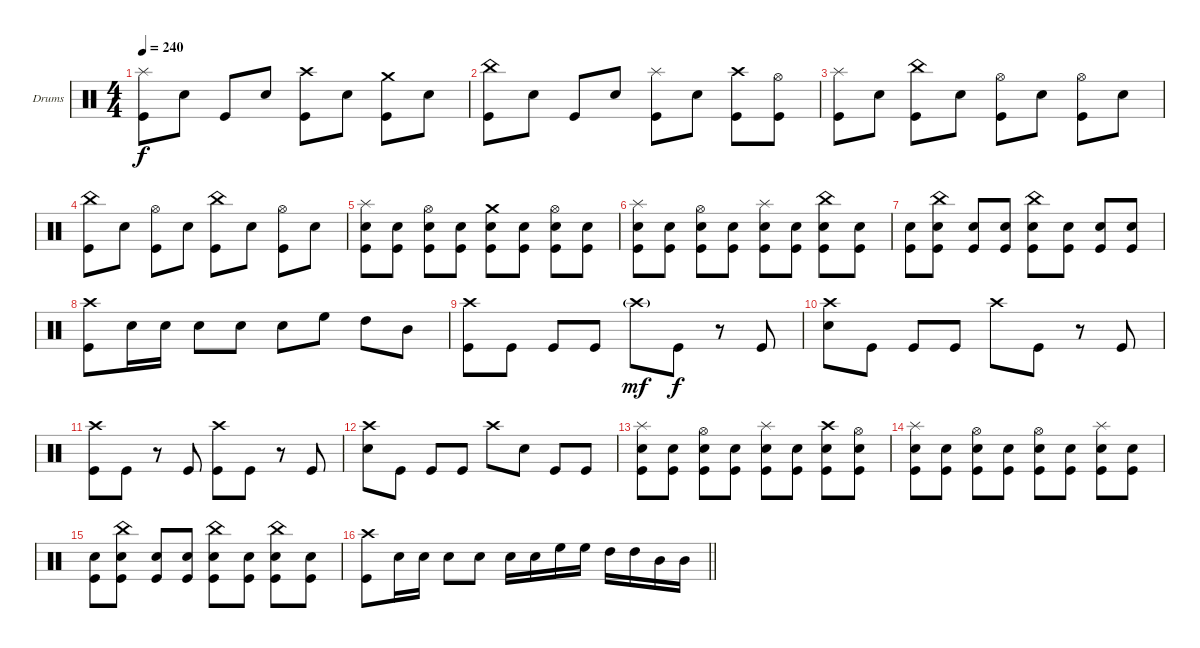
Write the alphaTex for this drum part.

\bracketExtendMode groupsimilarinstruments
\firstSystemTrackNameOrientation horizontal
\otherSystemsTrackNameOrientation horizontal
\track ("Drumkit" "Drums") {instrument percussion}
\staff {score}
\articulation defaults
\ts (4 4)
\tempo 240
\clef neutral
\ks c
("Splash (hit)" "Kick (hit)").8{dy f} "Snare (hit) 2".8 "Kick (hit)".8 "Snare (hit) 2".8 ("Crash high (hit)" "Kick (hit)").8 "Snare (hit) 2".8 ("Crash medium (hit)" "Kick (hit)").8 "Snare (hit) 2".8 |
("China (hit)" "Kick (hit)").8 "Snare (hit) 2".8 "Kick (hit)".8 "Snare (hit) 2".8 ("Splash (hit)" "Kick (hit)").8 "Snare (hit) 2".8 ("Crash high (hit)" "Kick (hit)").8 ("Hi-Hat (open)" "Kick (hit)").8 |
("Splash (hit)" "Kick (hit)").8 "Snare (hit) 2".8 ("China (hit)" "Kick (hit)").8 "Snare (hit) 2".8 ("Hi-Hat (open)" "Kick (hit)").8 "Snare (hit) 2".8 ("Hi-Hat (open)" "Kick (hit)").8 "Snare (hit) 2".8 |
("China (hit)" "Kick (hit)").8 "Snare (hit) 2".8 ("Hi-Hat (open)" "Kick (hit)").8 "Snare (hit) 2".8 ("China (hit)" "Kick (hit)").8 "Snare (hit) 2".8 ("Hi-Hat (open)" "Kick (hit)").8 "Snare (hit) 2".8 |
("Splash (hit)" "Snare (hit) 2" "Kick (hit)").8 ("Snare (hit) 2" "Kick (hit)").8 ("Hi-Hat (open)" "Snare (hit) 2" "Kick (hit)").8 ("Snare (hit) 2" "Kick (hit)").8 ("Crash medium (hit)" "Snare (hit) 2" "Kick (hit)").8 ("Snare (hit) 2" "Kick (hit)").8 ("Hi-Hat (open)" "Snare (hit) 2" "Kick (hit)").8 ("Snare (hit) 2" "Kick (hit)").8 |
("Splash (hit)" "Snare (hit) 2" "Kick (hit)").8 ("Snare (hit) 2" "Kick (hit)").8 ("Hi-Hat (open)" "Snare (hit) 2" "Kick (hit)").8 ("Snare (hit) 2" "Kick (hit)").8 ("Splash (hit)" "Snare (hit) 2" "Kick (hit)").8 ("Snare (hit) 2" "Kick (hit)").8 ("China (hit)" "Snare (hit) 2" "Kick (hit)").8 ("Snare (hit) 2" "Kick (hit)").8 |
("Snare (hit) 2" "Kick (hit)").8 ("China (hit)" "Snare (hit) 2" "Kick (hit)").8 ("Snare (hit) 2" "Kick (hit)").8 ("Snare (hit) 2" "Kick (hit)").8 ("China (hit)" "Snare (hit) 2" "Kick (hit)").8 ("Snare (hit) 2" "Kick (hit)").8 ("Snare (hit) 2" "Kick (hit)").8 ("Snare (hit) 2" "Kick (hit)").8 |
("Crash high (hit)" "Kick (hit)").8 "Snare (hit) 2".16 "Snare (hit) 2".16 "Snare (hit) 2".8 "Snare (hit) 2".8 "Snare (hit) 2".8 "High Floor Tom (hit)".8 "High Tom (hit)".8 "Mid Tom (hit)".8 |
("Crash high (hit)" "Kick (hit)").8 "Kick (hit)".8 "Kick (hit)".8 "Kick (hit)".8 "Crash high (hit)"{g}.8{dy mf} "Kick (hit)".8{dy f} r.8 "Kick (hit)".8 |
("Crash high (hit)" "Snare (hit) 2").8 "Kick (hit)".8 "Kick (hit)".8 "Kick (hit)".8 "Crash high (hit)".8 "Kick (hit)".8 r.8 "Kick (hit)".8 |
("Crash high (hit)" "Kick (hit)").8 "Kick (hit)".8 r.8 "Kick (hit)".8 ("Crash high (hit)" "Kick (hit)").8 "Kick (hit)".8 r.8 "Kick (hit)".8 |
("Crash high (hit)" "Snare (hit) 2").8 "Kick (hit)".8 "Kick (hit)".8 "Kick (hit)".8 "Crash high (hit)".8 "Snare (hit) 2".8 "Kick (hit)".8 "Kick (hit)".8 |
("Splash (hit)" "Snare (hit) 2" "Kick (hit)").8 ("Snare (hit) 2" "Kick (hit)").8 ("Hi-Hat (open)" "Snare (hit) 2" "Kick (hit)").8 ("Snare (hit) 2" "Kick (hit)").8 ("Splash (hit)" "Snare (hit) 2" "Kick (hit)").8 ("Snare (hit) 2" "Kick (hit)").8 ("Crash high (hit)" "Snare (hit) 2" "Kick (hit)").8 ("Hi-Hat (open)" "Snare (hit) 2" "Kick (hit)").8 |
("Splash (hit)" "Snare (hit) 2" "Kick (hit)").8 ("Snare (hit) 2" "Kick (hit)").8 ("Hi-Hat (open)" "Snare (hit) 2" "Kick (hit)").8 ("Snare (hit) 2" "Kick (hit)").8 ("Hi-Hat (open)" "Snare (hit) 2" "Kick (hit)").8 ("Snare (hit) 2" "Kick (hit)").8 ("Splash (hit)" "Snare (hit) 2" "Kick (hit)").8 ("Snare (hit) 2" "Kick (hit)").8 |
("Snare (hit) 2" "Kick (hit)").8 ("China (hit)" "Snare (hit) 2" "Kick (hit)").8 ("Snare (hit) 2" "Kick (hit)").8 ("Snare (hit) 2" "Kick (hit)").8 ("China (hit)" "Snare (hit) 2" "Kick (hit)").8 ("Snare (hit) 2" "Kick (hit)").8 ("China (hit)" "Snare (hit) 2" "Kick (hit)").8 ("Snare (hit) 2" "Kick (hit)").8 |
\barLineRight lightlight
("Crash high (hit)" "Kick (hit)").8 "Snare (hit) 2".16 "Snare (hit) 2".16 "Snare (hit) 2".8 "Snare (hit) 2".8 "Snare (hit) 2".16 "Snare (hit) 2".16 "High Floor Tom (hit)".16 "High Floor Tom (hit)".16 "High Tom (hit)".16 "High Tom (hit)".16 "Mid Tom (hit)".16 "Mid Tom (hit)".16
